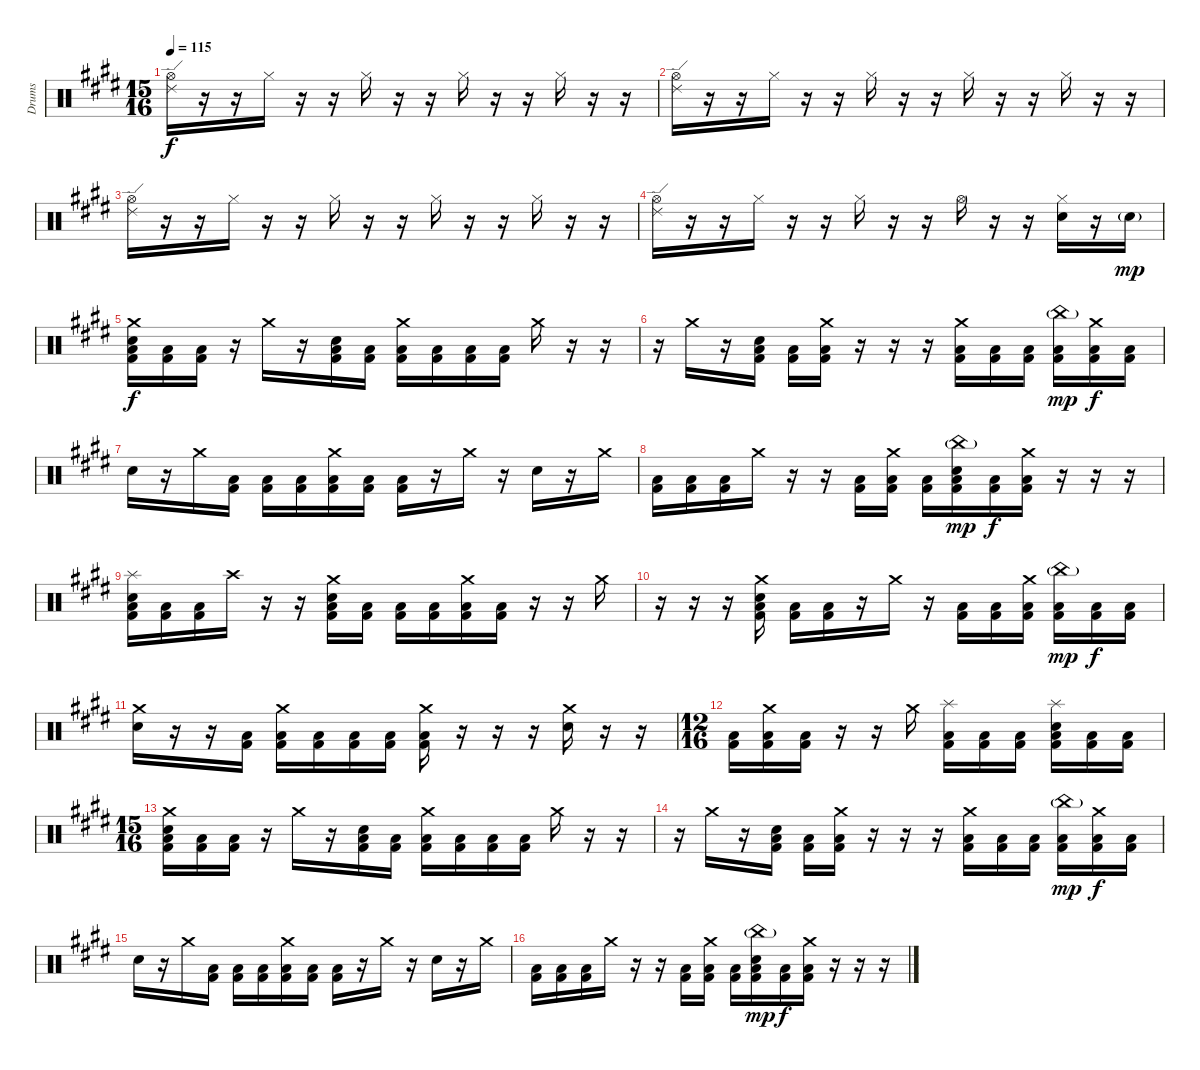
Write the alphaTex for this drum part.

\track ("Drums" "Drums") {instrument percussion}
\staff {score}
\articulation defaults
\ts (15 16)
\tempo 115
\clef neutral
\ks e
("Ride (edge) 2" "Hi-Hat (open)").16{dy f} r.16 r.16 "Hi-Hat (closed)".16 r.16 r.16 "Hi-Hat (closed)".16 r.16 r.16 "Hi-Hat (closed)".16 r.16 r.16 "Hi-Hat (closed)".16 r.16 r.16 |
("Ride (edge) 2" "Hi-Hat (open)").16 r.16 r.16 "Hi-Hat (closed)".16 r.16 r.16 "Hi-Hat (closed)".16 r.16 r.16 "Hi-Hat (closed)".16 r.16 r.16 "Hi-Hat (closed)".16 r.16 r.16 |
("Ride (edge) 2" "Hi-Hat (open)").16 r.16 r.16 "Hi-Hat (closed)".16 r.16 r.16 "Hi-Hat (closed)".16 r.16 r.16 "Hi-Hat (closed)".16 r.16 r.16 "Hi-Hat (closed)".16 r.16 r.16 |
("Ride (edge) 2" "Hi-Hat (open)").16 r.16 r.16 "Hi-Hat (closed)".16 r.16 r.16 "Hi-Hat (closed)".16 r.16 r.16 "Hi-Hat (open)".16 r.16 r.16 ("Hi-Hat (closed)" "Electric Snare (hit)").16 r.16 "Electric Snare (hit)"{g}.16{dy mp} |
("Crash medium (hit)" "Snare (hit) 2" "Low Floor Tom (hit)" "Kick (hit) 2").16{dy f} ("Low Floor Tom (hit)" "Kick (hit) 2").16 ("Low Floor Tom (hit)" "Kick (hit) 2").16 r.16 "Crash medium (hit)".16 r.16 ("Snare (hit) 2" "Low Floor Tom (hit)" "Kick (hit) 2").16 ("Low Floor Tom (hit)" "Kick (hit) 2").16 ("Crash medium (hit)" "Low Floor Tom (hit)" "Kick (hit) 2").16 ("Low Floor Tom (hit)" "Kick (hit) 2").16 ("Low Floor Tom (hit)" "Kick (hit) 2").16 ("Low Floor Tom (hit)" "Kick (hit) 2").16 "Crash medium (hit)".16 r.16 r.16 |
r.16 "Crash medium (hit)".16 r.16 ("Snare (hit) 2" "Low Floor Tom (hit)" "Kick (hit) 2").16 ("Low Floor Tom (hit)" "Kick (hit) 2").16 ("Crash medium (hit)" "Low Floor Tom (hit)" "Kick (hit) 2").16 r.16 r.16 r.16 ("Crash medium (hit)" "Low Floor Tom (hit)" "Kick (hit) 2").16 ("Low Floor Tom (hit)" "Kick (hit) 2").16 ("Low Floor Tom (hit)" "Kick (hit) 2").16 ("China (hit)"{g} "Low Floor Tom (hit)" "Kick (hit) 2").16{dy mp} ("Crash medium (hit)" "Low Floor Tom (hit)" "Kick (hit) 2").16{dy f} ("Low Floor Tom (hit)" "Kick (hit) 2").16 |
"Snare (hit) 2".16 r.16 "Crash medium (hit)".16 ("Low Floor Tom (hit)" "Kick (hit) 2").16 ("Low Floor Tom (hit)" "Kick (hit) 2").16 ("Low Floor Tom (hit)" "Kick (hit) 2").16 ("Crash medium (hit)" "Low Floor Tom (hit)" "Kick (hit) 2").16 ("Low Floor Tom (hit)" "Kick (hit) 2").16 ("Low Floor Tom (hit)" "Kick (hit) 2").16 r.16 "Crash medium (hit)".16 r.16 "Snare (hit) 2".16 r.16 "Crash medium (hit)".16 |
("Low Floor Tom (hit)" "Kick (hit) 2").16 ("Low Floor Tom (hit)" "Kick (hit) 2").16 ("Low Floor Tom (hit)" "Kick (hit) 2").16 "Crash medium (hit)".16 r.16 r.16 ("Low Floor Tom (hit)" "Kick (hit) 2").16 ("Crash medium (hit)" "Low Floor Tom (hit)" "Kick (hit) 2").16 ("Low Floor Tom (hit)" "Kick (hit) 2").16 ("China (hit)"{g} "Snare (hit) 2" "Low Floor Tom (hit)" "Kick (hit) 2").16{dy mp} ("Low Floor Tom (hit)" "Kick (hit) 2").16{dy f} ("Crash medium (hit)" "Low Floor Tom (hit)" "Kick (hit) 2").16 r.16 r.16 r.16 |
("Splash (hit)" "Snare (hit) 2" "Low Floor Tom (hit)" "Kick (hit) 2").16 ("Low Floor Tom (hit)" "Kick (hit) 2").16 ("Low Floor Tom (hit)" "Kick (hit) 2").16 "Crash high (hit)".16 r.16 r.16 ("Crash medium (hit)" "Snare (hit) 2" "Low Floor Tom (hit)" "Kick (hit) 2").16 ("Low Floor Tom (hit)" "Kick (hit) 2").16 ("Low Floor Tom (hit)" "Kick (hit) 2").16 ("Low Floor Tom (hit)" "Kick (hit) 2").16 ("Crash medium (hit)" "Low Floor Tom (hit)" "Kick (hit) 2").16 ("Low Floor Tom (hit)" "Kick (hit) 2").16 r.16 r.16 "Crash medium (hit)".16 |
r.16 r.16 r.16 ("Crash medium (hit)" "Snare (hit) 2" "Low Floor Tom (hit)" "Kick (hit) 2").16 ("Low Floor Tom (hit)" "Kick (hit) 2").16 ("Low Floor Tom (hit)" "Kick (hit) 2").16 r.16 "Crash medium (hit)".16 r.16 ("Low Floor Tom (hit)" "Kick (hit) 2").16 ("Low Floor Tom (hit)" "Kick (hit) 2").16 ("Crash medium (hit)" "Low Floor Tom (hit)" "Kick (hit) 2").16 ("China (hit)"{g} "Low Floor Tom (hit)" "Kick (hit) 2").16{dy mp} ("Low Floor Tom (hit)" "Kick (hit) 2").16{dy f} ("Low Floor Tom (hit)" "Kick (hit) 2").16 |
("Crash medium (hit)" "Snare (hit) 2").16 r.16 r.16 ("Low Floor Tom (hit)" "Kick (hit) 2").16 ("Crash medium (hit)" "Low Floor Tom (hit)" "Kick (hit) 2").16 ("Low Floor Tom (hit)" "Kick (hit) 2").16 ("Low Floor Tom (hit)" "Kick (hit) 2").16 ("Low Floor Tom (hit)" "Kick (hit) 2").16 ("Crash medium (hit)" "Low Floor Tom (hit)" "Kick (hit) 2").16 r.16 r.16 r.16 ("Crash medium (hit)" "Snare (hit) 2").16 r.16 r.16 |
\ts (12 16)
("Low Floor Tom (hit)" "Kick (hit) 2").16 ("Crash medium (hit)" "Low Floor Tom (hit)" "Kick (hit) 2").16 ("Low Floor Tom (hit)" "Kick (hit) 2").16 r.16 r.16 "Crash medium (hit)".16 ("Splash (hit)" "Low Floor Tom (hit)" "Kick (hit) 2").16 ("Low Floor Tom (hit)" "Kick (hit) 2").16 ("Low Floor Tom (hit)" "Kick (hit) 2").16 ("Splash (hit)" "Snare (hit) 2" "Low Floor Tom (hit)" "Kick (hit) 2").16 ("Low Floor Tom (hit)" "Kick (hit) 2").16 ("Low Floor Tom (hit)" "Kick (hit) 2").16 |
\ts (15 16)
("Crash medium (hit)" "Snare (hit) 2" "Low Floor Tom (hit)" "Kick (hit) 2").16 ("Low Floor Tom (hit)" "Kick (hit) 2").16 ("Low Floor Tom (hit)" "Kick (hit) 2").16 r.16 "Crash medium (hit)".16 r.16 ("Snare (hit) 2" "Low Floor Tom (hit)" "Kick (hit) 2").16 ("Low Floor Tom (hit)" "Kick (hit) 2").16 ("Crash medium (hit)" "Low Floor Tom (hit)" "Kick (hit) 2").16 ("Low Floor Tom (hit)" "Kick (hit) 2").16 ("Low Floor Tom (hit)" "Kick (hit) 2").16 ("Low Floor Tom (hit)" "Kick (hit) 2").16 "Crash medium (hit)".16 r.16 r.16 |
r.16 "Crash medium (hit)".16 r.16 ("Snare (hit) 2" "Low Floor Tom (hit)" "Kick (hit) 2").16 ("Low Floor Tom (hit)" "Kick (hit) 2").16 ("Crash medium (hit)" "Low Floor Tom (hit)" "Kick (hit) 2").16 r.16 r.16 r.16 ("Crash medium (hit)" "Low Floor Tom (hit)" "Kick (hit) 2").16 ("Low Floor Tom (hit)" "Kick (hit) 2").16 ("Low Floor Tom (hit)" "Kick (hit) 2").16 ("China (hit)"{g} "Low Floor Tom (hit)" "Kick (hit) 2").16{dy mp} ("Crash medium (hit)" "Low Floor Tom (hit)" "Kick (hit) 2").16{dy f} ("Low Floor Tom (hit)" "Kick (hit) 2").16 |
"Snare (hit) 2".16 r.16 "Crash medium (hit)".16 ("Low Floor Tom (hit)" "Kick (hit) 2").16 ("Low Floor Tom (hit)" "Kick (hit) 2").16 ("Low Floor Tom (hit)" "Kick (hit) 2").16 ("Crash medium (hit)" "Low Floor Tom (hit)" "Kick (hit) 2").16 ("Low Floor Tom (hit)" "Kick (hit) 2").16 ("Low Floor Tom (hit)" "Kick (hit) 2").16 r.16 "Crash medium (hit)".16 r.16 "Snare (hit) 2".16 r.16 "Crash medium (hit)".16 |
("Low Floor Tom (hit)" "Kick (hit) 2").16 ("Low Floor Tom (hit)" "Kick (hit) 2").16 ("Low Floor Tom (hit)" "Kick (hit) 2").16 "Crash medium (hit)".16 r.16 r.16 ("Low Floor Tom (hit)" "Kick (hit) 2").16 ("Crash medium (hit)" "Low Floor Tom (hit)" "Kick (hit) 2").16 ("Low Floor Tom (hit)" "Kick (hit) 2").16 ("China (hit)"{g} "Snare (hit) 2" "Low Floor Tom (hit)" "Kick (hit) 2").16{dy mp} ("Low Floor Tom (hit)" "Kick (hit) 2").16{dy f} ("Crash medium (hit)" "Low Floor Tom (hit)" "Kick (hit) 2").16 r.16 r.16 r.16
